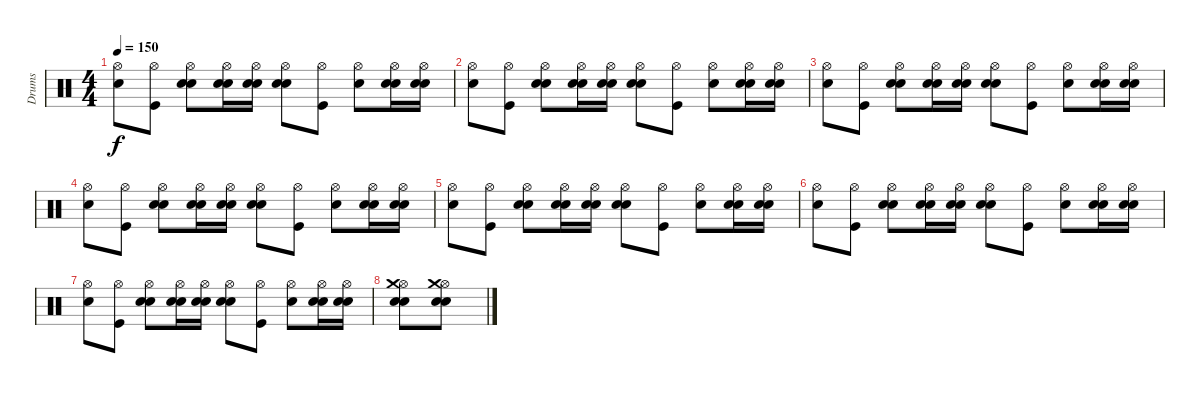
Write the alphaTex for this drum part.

\track ("Drums" "Drums") {instrument percussion}
\staff {score}
\articulation defaults
\ts (4 4)
\tempo 150
\clef neutral
\ks c
("Hi-Hat (open)" "Snare (hit) 2").8{dy f} ("Hi-Hat (open)" "Kick (hit)").8 ("Electric Snare (hit)" "Hi-Hat (open)" "Snare (hit) 2").8 ("Electric Snare (hit)" "Hi-Hat (open)" "Snare (hit) 2").16 ("Electric Snare (hit)" "Hi-Hat (open)" "Snare (hit) 2").16 ("Electric Snare (hit)" "Hi-Hat (open)" "Snare (hit) 2").8 ("Hi-Hat (open)" "Kick (hit)").8 ("Hi-Hat (open)" "Snare (hit) 2").8 ("Electric Snare (hit)" "Hi-Hat (open)" "Snare (hit) 2").16 ("Electric Snare (hit)" "Hi-Hat (open)" "Snare (hit) 2").16 |
("Hi-Hat (open)" "Snare (hit) 2").8 ("Hi-Hat (open)" "Kick (hit)").8 ("Electric Snare (hit)" "Hi-Hat (open)" "Snare (hit) 2").8 ("Electric Snare (hit)" "Hi-Hat (open)" "Snare (hit) 2").16 ("Electric Snare (hit)" "Hi-Hat (open)" "Snare (hit) 2").16 ("Electric Snare (hit)" "Hi-Hat (open)" "Snare (hit) 2").8 ("Hi-Hat (open)" "Kick (hit)").8 ("Hi-Hat (open)" "Snare (hit) 2").8 ("Electric Snare (hit)" "Hi-Hat (open)" "Snare (hit) 2").16 ("Electric Snare (hit)" "Hi-Hat (open)" "Snare (hit) 2").16 |
("Hi-Hat (open)" "Snare (hit) 2").8 ("Hi-Hat (open)" "Kick (hit)").8 ("Electric Snare (hit)" "Hi-Hat (open)" "Snare (hit) 2").8 ("Electric Snare (hit)" "Hi-Hat (open)" "Snare (hit) 2").16 ("Electric Snare (hit)" "Hi-Hat (open)" "Snare (hit) 2").16 ("Electric Snare (hit)" "Hi-Hat (open)" "Snare (hit) 2").8 ("Hi-Hat (open)" "Kick (hit)").8 ("Hi-Hat (open)" "Snare (hit) 2").8 ("Electric Snare (hit)" "Hi-Hat (open)" "Snare (hit) 2").16 ("Electric Snare (hit)" "Hi-Hat (open)" "Snare (hit) 2").16 |
("Hi-Hat (open)" "Snare (hit) 2").8 ("Hi-Hat (open)" "Kick (hit)").8 ("Electric Snare (hit)" "Hi-Hat (open)" "Snare (hit) 2").8 ("Electric Snare (hit)" "Hi-Hat (open)" "Snare (hit) 2").16 ("Electric Snare (hit)" "Hi-Hat (open)" "Snare (hit) 2").16 ("Electric Snare (hit)" "Hi-Hat (open)" "Snare (hit) 2").8 ("Hi-Hat (open)" "Kick (hit)").8 ("Hi-Hat (open)" "Snare (hit) 2").8 ("Electric Snare (hit)" "Hi-Hat (open)" "Snare (hit) 2").16 ("Electric Snare (hit)" "Hi-Hat (open)" "Snare (hit) 2").16 |
("Hi-Hat (open)" "Snare (hit) 2").8 ("Hi-Hat (open)" "Kick (hit)").8 ("Electric Snare (hit)" "Hi-Hat (open)" "Snare (hit) 2").8 ("Electric Snare (hit)" "Hi-Hat (open)" "Snare (hit) 2").16 ("Electric Snare (hit)" "Hi-Hat (open)" "Snare (hit) 2").16 ("Electric Snare (hit)" "Hi-Hat (open)" "Snare (hit) 2").8 ("Hi-Hat (open)" "Kick (hit)").8 ("Hi-Hat (open)" "Snare (hit) 2").8 ("Electric Snare (hit)" "Hi-Hat (open)" "Snare (hit) 2").16 ("Electric Snare (hit)" "Hi-Hat (open)" "Snare (hit) 2").16 |
("Hi-Hat (open)" "Snare (hit) 2").8 ("Hi-Hat (open)" "Kick (hit)").8 ("Electric Snare (hit)" "Hi-Hat (open)" "Snare (hit) 2").8 ("Electric Snare (hit)" "Hi-Hat (open)" "Snare (hit) 2").16 ("Electric Snare (hit)" "Hi-Hat (open)" "Snare (hit) 2").16 ("Electric Snare (hit)" "Hi-Hat (open)" "Snare (hit) 2").8 ("Hi-Hat (open)" "Kick (hit)").8 ("Hi-Hat (open)" "Snare (hit) 2").8 ("Electric Snare (hit)" "Hi-Hat (open)" "Snare (hit) 2").16 ("Electric Snare (hit)" "Hi-Hat (open)" "Snare (hit) 2").16 |
("Hi-Hat (open)" "Snare (hit) 2").8 ("Hi-Hat (open)" "Kick (hit)").8 ("Electric Snare (hit)" "Hi-Hat (open)" "Snare (hit) 2").8 ("Electric Snare (hit)" "Hi-Hat (open)" "Snare (hit) 2").16 ("Electric Snare (hit)" "Hi-Hat (open)" "Snare (hit) 2").16 ("Electric Snare (hit)" "Hi-Hat (open)" "Snare (hit) 2").8 ("Hi-Hat (open)" "Kick (hit)").8 ("Hi-Hat (open)" "Snare (hit) 2").8 ("Electric Snare (hit)" "Hi-Hat (open)" "Snare (hit) 2").16 ("Electric Snare (hit)" "Hi-Hat (open)" "Snare (hit) 2").16 |
("Electric Snare (hit)" "Hi-Hat (open)" "Snare (hit) 2" "Crash medium (hit)").8 ("Electric Snare (hit)" "Hi-Hat (open)" "Snare (hit) 2" "Crash medium (hit)").8
